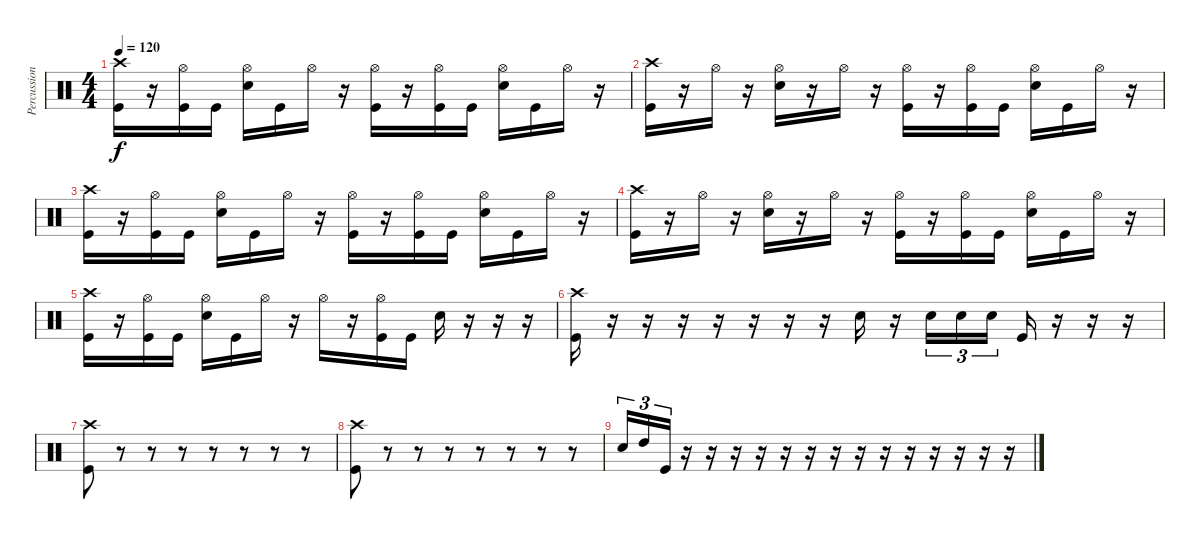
\track ("Percussion" "Percussion") {instrument percussion}
\staff {score}
\articulation defaults
\ts (4 4)
\tempo 120
\clef neutral
\ks c
("Crash high (hit)" "Kick (hit)").16{dy f} r.16 ("Hi-Hat (open)" "Kick (hit)").16 "Kick (hit)".16 ("Hi-Hat (open)" "Snare (hit) 2").16 "Kick (hit)".16 "Hi-Hat (open)".16 r.16 ("Hi-Hat (open)" "Kick (hit)").16 r.16 ("Hi-Hat (open)" "Kick (hit)").16 "Kick (hit)".16 ("Hi-Hat (open)" "Snare (hit) 2").16 "Kick (hit)".16 "Hi-Hat (open)".16 r.16 |
("Crash high (hit)" "Kick (hit)").16 r.16 "Hi-Hat (open)".16 r.16 ("Hi-Hat (open)" "Snare (hit) 2").16 r.16 "Hi-Hat (open)".16 r.16 ("Hi-Hat (open)" "Kick (hit)").16 r.16 ("Hi-Hat (open)" "Kick (hit)").16 "Kick (hit)".16 ("Hi-Hat (open)" "Snare (hit) 2").16 "Kick (hit)".16 "Hi-Hat (open)".16 r.16 |
("Crash high (hit)" "Kick (hit)").16 r.16 ("Hi-Hat (open)" "Kick (hit)").16 "Kick (hit)".16 ("Hi-Hat (open)" "Snare (hit) 2").16 "Kick (hit)".16 "Hi-Hat (open)".16 r.16 ("Hi-Hat (open)" "Kick (hit)").16 r.16 ("Hi-Hat (open)" "Kick (hit)").16 "Kick (hit)".16 ("Hi-Hat (open)" "Snare (hit) 2").16 "Kick (hit)".16 "Hi-Hat (open)".16 r.16 |
("Crash high (hit)" "Kick (hit)").16 r.16 "Hi-Hat (open)".16 r.16 ("Hi-Hat (open)" "Snare (hit) 2").16 r.16 "Hi-Hat (open)".16 r.16 ("Hi-Hat (open)" "Kick (hit)").16 r.16 ("Hi-Hat (open)" "Kick (hit)").16 "Kick (hit)".16 ("Hi-Hat (open)" "Snare (hit) 2").16 "Kick (hit)".16 "Hi-Hat (open)".16 r.16 |
("Crash high (hit)" "Kick (hit)").16 r.16 ("Hi-Hat (open)" "Kick (hit)").16 "Kick (hit)".16 ("Hi-Hat (open)" "Snare (hit) 2").16 "Kick (hit)".16 "Hi-Hat (open)".16 r.16 "Hi-Hat (open)".16 r.16 ("Hi-Hat (open)" "Kick (hit)").16 "Kick (hit)".16 "Snare (hit) 2".16 r.16 r.16 r.16 |
("Crash high (hit)" "Kick (hit)").16 r.16 r.16 r.16 r.16 r.16 r.16 r.16 "Snare (hit) 2".16 r.16 "Snare (hit) 2".16{tu (3 2)} "Snare (hit) 2".16{tu (3 2)} "Snare (hit) 2".16{tu (3 2)} "Kick (hit)".16 r.16 r.16 r.16 |
("Crash high (hit)" "Kick (hit)").8 r.8 r.8 r.8 r.8 r.8 r.8 r.8 |
("Crash high (hit)" "Kick (hit)").8 r.8 r.8 r.8 r.8 r.8 r.8 r.8 |
"Snare (hit) 2".16{tu (3 2)} "High Tom (hit)".16{tu (3 2)} "Kick (hit)".16{tu (3 2)} r.16 r.16 r.16 r.16 r.16 r.16 r.16 r.16 r.16 r.16 r.16 r.16 r.16 r.16
